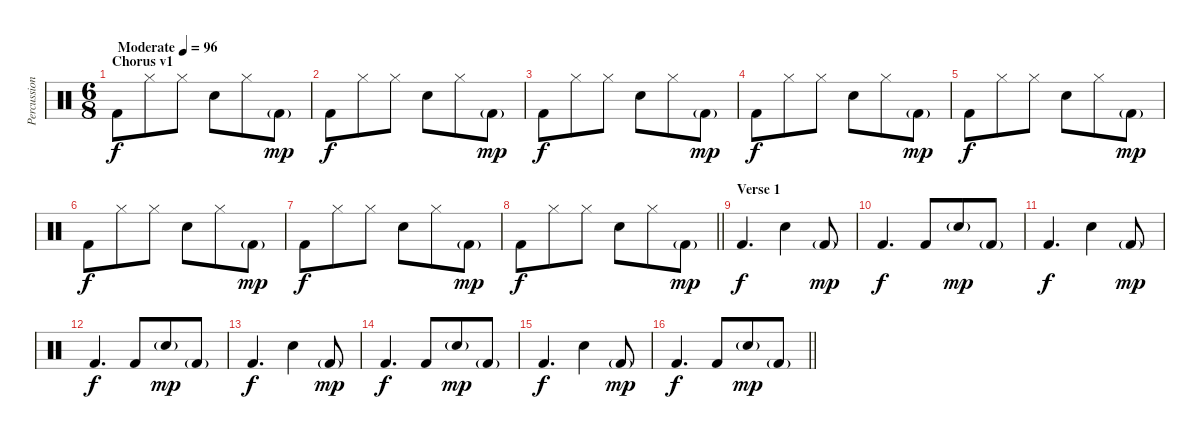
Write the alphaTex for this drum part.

\track ("Percussion" "Percussion") {instrument percussion}
\staff {score}
\articulation defaults
\ts (6 8)
\section ("" "Chorus v1")
\tempo (96 "Moderate")
\clef neutral
\ks c "Kick (hit) 2".8{dy f} "Hi-Hat (closed)".8 "Hi-Hat (closed)".8 "Snare (hit) 2".8 "Hi-Hat (closed)".8 "Kick (hit) 2"{g}.8{dy mp}
|
"Kick (hit) 2".8{dy f} "Hi-Hat (closed)".8 "Hi-Hat (closed)".8 "Snare (hit) 2".8 "Hi-Hat (closed)".8 "Kick (hit) 2"{g}.8{dy mp} |
"Kick (hit) 2".8{dy f} "Hi-Hat (closed)".8 "Hi-Hat (closed)".8 "Snare (hit) 2".8 "Hi-Hat (closed)".8 "Kick (hit) 2"{g}.8{dy mp} |
"Kick (hit) 2".8{dy f} "Hi-Hat (closed)".8 "Hi-Hat (closed)".8 "Snare (hit) 2".8 "Hi-Hat (closed)".8 "Kick (hit) 2"{g}.8{dy mp} |
"Kick (hit) 2".8{dy f} "Hi-Hat (closed)".8 "Hi-Hat (closed)".8 "Snare (hit) 2".8 "Hi-Hat (closed)".8 "Kick (hit) 2"{g}.8{dy mp} |
"Kick (hit) 2".8{dy f} "Hi-Hat (closed)".8 "Hi-Hat (closed)".8 "Snare (hit) 2".8 "Hi-Hat (closed)".8 "Kick (hit) 2"{g}.8{dy mp} |
"Kick (hit) 2".8{dy f} "Hi-Hat (closed)".8 "Hi-Hat (closed)".8 "Snare (hit) 2".8 "Hi-Hat (closed)".8 "Kick (hit) 2"{g}.8{dy mp} |
\barLineRight lightlight "Kick (hit) 2".8{dy f} "Hi-Hat (closed)".8 "Hi-Hat (closed)".8 "Snare (hit) 2".8 "Hi-Hat (closed)".8 "Kick (hit) 2"{g}.8{dy mp}
|
\section ("" "Verse 1")
"Kick (hit) 2".4{d dy f} "Snare (hit) 2".4 "Kick (hit) 2"{g}.8{dy mp} |
"Kick (hit) 2".4{d dy f} "Kick (hit) 2".8 "Snare (hit) 2"{g}.8{dy mp} "Kick (hit) 2"{g}.8 |
"Kick (hit) 2".4{d dy f} "Snare (hit) 2".4 "Kick (hit) 2"{g}.8{dy mp} |
"Kick (hit) 2".4{d dy f} "Kick (hit) 2".8 "Snare (hit) 2"{g}.8{dy mp} "Kick (hit) 2"{g}.8 |
"Kick (hit) 2".4{d dy f} "Snare (hit) 2".4 "Kick (hit) 2"{g}.8{dy mp} |
"Kick (hit) 2".4{d dy f} "Kick (hit) 2".8 "Snare (hit) 2"{g}.8{dy mp} "Kick (hit) 2"{g}.8 |
"Kick (hit) 2".4{d dy f} "Snare (hit) 2".4 "Kick (hit) 2"{g}.8{dy mp} |
\barLineRight lightlight "Kick (hit) 2".4{d dy f} "Kick (hit) 2".8 "Snare (hit) 2"{g}.8{dy mp} "Kick (hit) 2"{g}.8
